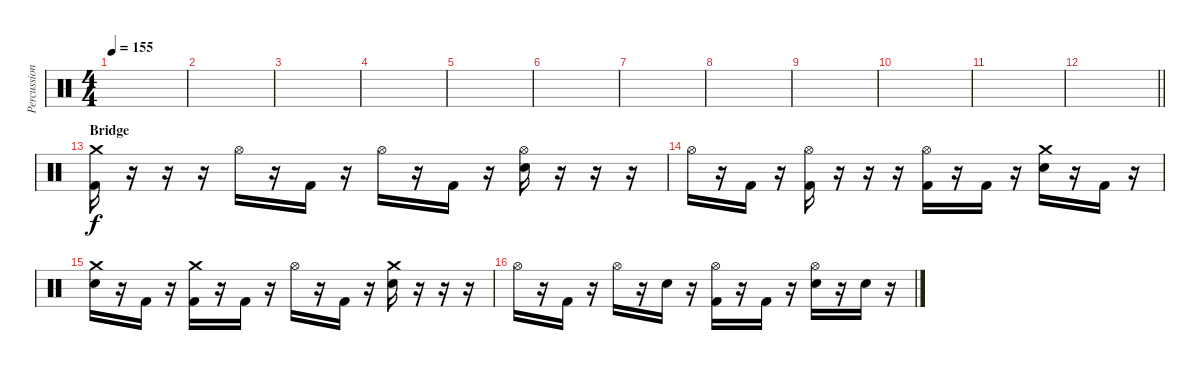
\track ("Percussion" "Percussion") {instrument percussion}
\staff {score}
\articulation defaults
\ts (4 4)
\tempo 155
\clef neutral
\ks c
|
|
|
|
|
|
|
|
|
|
|
\barLineRight lightlight
|
\section ("" "Bridge")
("Crash medium (hit)" "Kick (hit) 2").16 r.16 r.16 r.16 "Hi-Hat (open)".16 r.16 "Kick (hit) 2".16 r.16 "Hi-Hat (open)".16 r.16 "Kick (hit) 2".16 r.16 ("Hi-Hat (open)" "Electric Snare (hit)").16 r.16 r.16 r.16 |
"Hi-Hat (open)".16 r.16 "Kick (hit) 2".16 r.16 ("Hi-Hat (open)" "Kick (hit) 2").16 r.16 r.16 r.16 ("Hi-Hat (open)" "Kick (hit) 2").16 r.16 "Kick (hit) 2".16 r.16 ("Crash medium (hit)" "Electric Snare (hit)").16 r.16 "Kick (hit) 2".16 r.16 |
("Crash medium (hit)" "Electric Snare (hit)").16 r.16 "Kick (hit) 2".16 r.16 ("Crash medium (hit)" "Kick (hit) 2").16 r.16 "Kick (hit) 2".16 r.16 "Hi-Hat (open)".16 r.16 "Kick (hit) 2".16 r.16 ("Crash medium (hit)" "Electric Snare (hit)").16 r.16 r.16 r.16 |
"Hi-Hat (open)".16 r.16 "Kick (hit) 2".16 r.16 "Hi-Hat (open)".16 r.16 "Electric Snare (hit)".16 r.16 ("Hi-Hat (open)" "Kick (hit) 2").16 r.16 "Kick (hit) 2".16 r.16 ("Hi-Hat (open)" "Electric Snare (hit)").16 r.16 "Electric Snare (hit)".16 r.16
